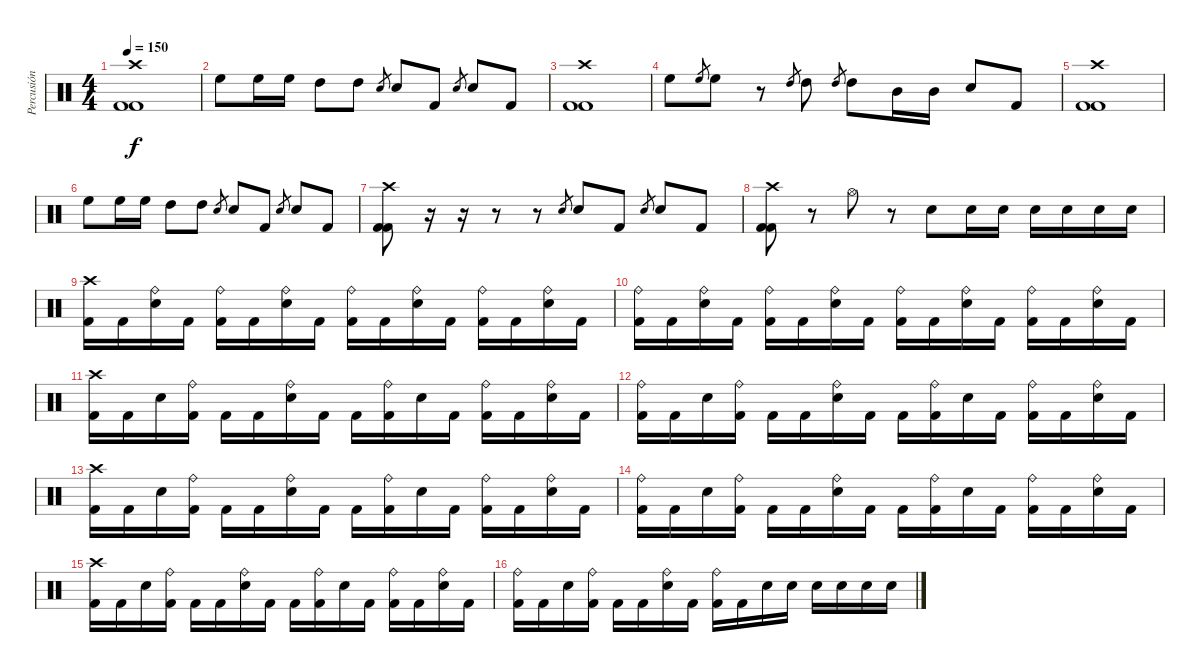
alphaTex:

\track ("Percusión" "Percusión") {instrument percussion}
\staff {score}
\articulation defaults
\ts (4 4)
\tempo 150
\clef neutral
\ks c
("Crash high (hit)" "Kick (hit) 2" "Kick (hit) 2").1{dy f} |
"High Floor Tom (hit)".8 "High Floor Tom (hit)".16 "High Floor Tom (hit)".16 "High Tom (hit)".8 "High Tom (hit)".8 "Electric Snare (hit)".8{gr} "Electric Snare (hit)".8 "Kick (hit) 2".8 "Electric Snare (hit)".8{gr} "Electric Snare (hit)".8 "Kick (hit) 2".8 |
("Crash high (hit)" "Kick (hit) 2" "Kick (hit) 2").1 |
"High Floor Tom (hit)".8 "High Floor Tom (hit)".8{gr} "High Floor Tom (hit)".8 r.8 "High Tom (hit)".8{gr} "High Tom (hit)".8 "High Tom (hit)".8{gr} "High Tom (hit)".8 "Mid Tom (hit)".16 "Mid Tom (hit)".16 "Electric Snare (hit)".8 "Kick (hit) 2".8 |
("Crash high (hit)" "Kick (hit) 2" "Kick (hit) 2").1 |
"High Floor Tom (hit)".8 "High Floor Tom (hit)".16 "High Floor Tom (hit)".16 "High Tom (hit)".8 "High Tom (hit)".8 "Electric Snare (hit)".8{gr} "Electric Snare (hit)".8 "Kick (hit) 2".8 "Electric Snare (hit)".8{gr} "Electric Snare (hit)".8 "Kick (hit) 2".8 |
("Crash high (hit)" "Kick (hit) 2" "Kick (hit) 2").8 r.16 r.16 r.8 r.8 "Electric Snare (hit)".8{gr} "Electric Snare (hit)".8 "Kick (hit) 2".8 "Electric Snare (hit)".8{gr} "Electric Snare (hit)".8 "Kick (hit) 2".8 |
("Crash high (hit)" "Kick (hit) 2" "Kick (hit) 2").8 r.8 "Hi-Hat (open)".8 r.8 "Electric Snare (hit)".8 "Electric Snare (hit)".16 "Electric Snare (hit)".16 "Electric Snare (hit)".16 "Electric Snare (hit)".16 "Electric Snare (hit)".16 "Electric Snare (hit)".16 |
("Crash high (hit)" "Kick (hit) 2").16 "Kick (hit) 2".16 ("Ride (bell)" "Electric Snare (hit)").16 "Kick (hit) 2".16 ("Ride (bell)" "Kick (hit) 2").16 "Kick (hit) 2".16 ("Ride (bell)" "Electric Snare (hit)").16 "Kick (hit) 2".16 ("Ride (bell)" "Kick (hit) 2").16 "Kick (hit) 2".16 ("Ride (bell)" "Electric Snare (hit)").16 "Kick (hit) 2".16 ("Ride (bell)" "Kick (hit) 2").16 "Kick (hit) 2".16 ("Ride (bell)" "Electric Snare (hit)").16 "Kick (hit) 2".16 |
("Ride (bell)" "Kick (hit) 2").16 "Kick (hit) 2".16 ("Ride (bell)" "Electric Snare (hit)").16 "Kick (hit) 2".16 ("Ride (bell)" "Kick (hit) 2").16 "Kick (hit) 2".16 ("Ride (bell)" "Electric Snare (hit)").16 "Kick (hit) 2".16 ("Ride (bell)" "Kick (hit) 2").16 "Kick (hit) 2".16 ("Ride (bell)" "Electric Snare (hit)").16 "Kick (hit) 2".16 ("Ride (bell)" "Kick (hit) 2").16 "Kick (hit) 2".16 ("Ride (bell)" "Electric Snare (hit)").16 "Kick (hit) 2".16 |
("Crash high (hit)" "Kick (hit) 2").16 "Kick (hit) 2".16 "Electric Snare (hit)".16 ("Ride (bell)" "Kick (hit) 2").16 "Kick (hit) 2".16 "Kick (hit) 2".16 ("Ride (bell)" "Electric Snare (hit)").16 "Kick (hit) 2".16 "Kick (hit) 2".16 ("Ride (bell)" "Kick (hit) 2").16 "Electric Snare (hit)".16 "Kick (hit) 2".16 ("Ride (bell)" "Kick (hit) 2").16 "Kick (hit) 2".16 ("Ride (bell)" "Electric Snare (hit)").16 "Kick (hit) 2".16 |
("Ride (bell)" "Kick (hit) 2").16 "Kick (hit) 2".16 "Electric Snare (hit)".16 ("Ride (bell)" "Kick (hit) 2").16 "Kick (hit) 2".16 "Kick (hit) 2".16 ("Ride (bell)" "Electric Snare (hit)").16 "Kick (hit) 2".16 "Kick (hit) 2".16 ("Ride (bell)" "Kick (hit) 2").16 "Electric Snare (hit)".16 "Kick (hit) 2".16 ("Ride (bell)" "Kick (hit) 2").16 "Kick (hit) 2".16 ("Ride (bell)" "Electric Snare (hit)").16 "Kick (hit) 2".16 |
("Crash high (hit)" "Kick (hit) 2").16 "Kick (hit) 2".16 "Electric Snare (hit)".16 ("Ride (bell)" "Kick (hit) 2").16 "Kick (hit) 2".16 "Kick (hit) 2".16 ("Ride (bell)" "Electric Snare (hit)").16 "Kick (hit) 2".16 "Kick (hit) 2".16 ("Ride (bell)" "Kick (hit) 2").16 "Electric Snare (hit)".16 "Kick (hit) 2".16 ("Ride (bell)" "Kick (hit) 2").16 "Kick (hit) 2".16 ("Ride (bell)" "Electric Snare (hit)").16 "Kick (hit) 2".16 |
("Ride (bell)" "Kick (hit) 2").16 "Kick (hit) 2".16 "Electric Snare (hit)".16 ("Ride (bell)" "Kick (hit) 2").16 "Kick (hit) 2".16 "Kick (hit) 2".16 ("Ride (bell)" "Electric Snare (hit)").16 "Kick (hit) 2".16 "Kick (hit) 2".16 ("Ride (bell)" "Kick (hit) 2").16 "Electric Snare (hit)".16 "Kick (hit) 2".16 ("Ride (bell)" "Kick (hit) 2").16 "Kick (hit) 2".16 ("Ride (bell)" "Electric Snare (hit)").16 "Kick (hit) 2".16 |
("Crash high (hit)" "Kick (hit) 2").16 "Kick (hit) 2".16 "Electric Snare (hit)".16 ("Ride (bell)" "Kick (hit) 2").16 "Kick (hit) 2".16 "Kick (hit) 2".16 ("Ride (bell)" "Electric Snare (hit)").16 "Kick (hit) 2".16 "Kick (hit) 2".16 ("Ride (bell)" "Kick (hit) 2").16 "Electric Snare (hit)".16 "Kick (hit) 2".16 ("Ride (bell)" "Kick (hit) 2").16 "Kick (hit) 2".16 ("Ride (bell)" "Electric Snare (hit)").16 "Kick (hit) 2".16 |
("Ride (bell)" "Kick (hit) 2").16 "Kick (hit) 2".16 "Electric Snare (hit)".16 ("Ride (bell)" "Kick (hit) 2").16 "Kick (hit) 2".16 "Kick (hit) 2".16 ("Ride (bell)" "Electric Snare (hit)").16 "Kick (hit) 2".16 ("Ride (bell)" "Kick (hit) 2").16 "Kick (hit) 2".16 "Electric Snare (hit)".16 "Electric Snare (hit)".16 "Electric Snare (hit)".16 "Electric Snare (hit)".16 "Electric Snare (hit)".16 "Electric Snare (hit)".16
